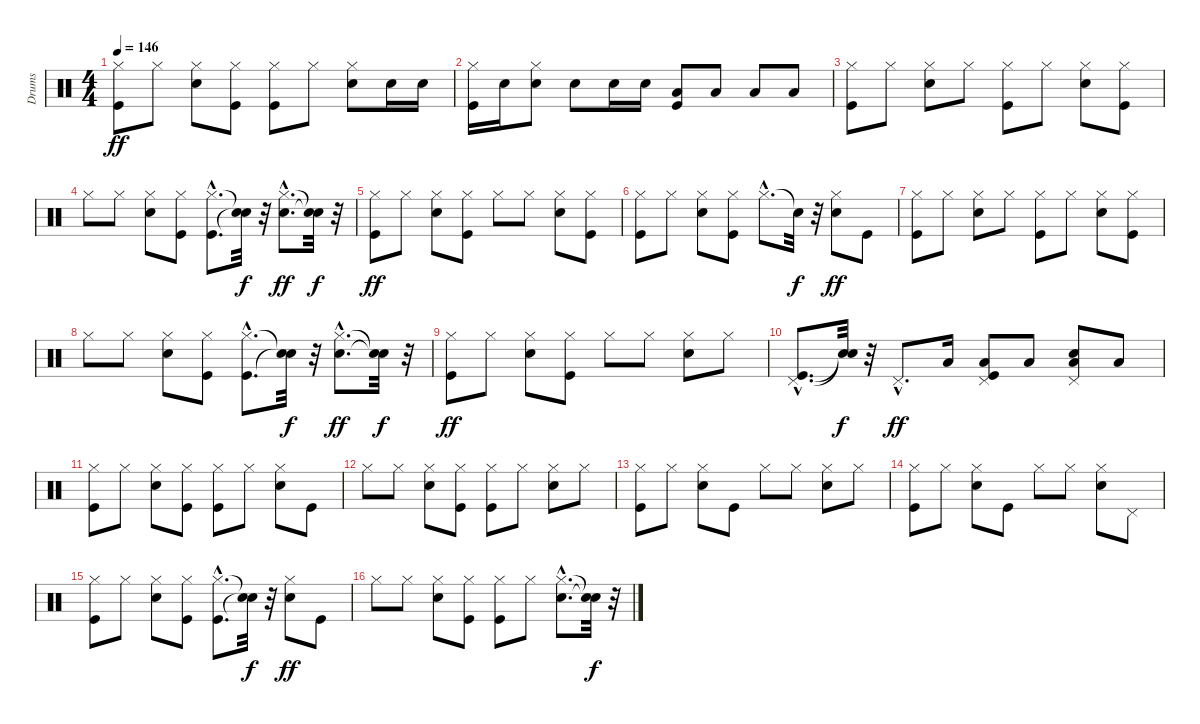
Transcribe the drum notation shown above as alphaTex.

\track ("Drums" "Drums") {instrument percussion}
\staff {score}
\articulation defaults
\ts (4 4)
\tempo 146
\clef neutral
\ks c
("Kick (hit)" "Hi-Hat (closed)").8{dy ff} "Hi-Hat (closed)".8 ("Snare (hit) 2" "Hi-Hat (closed)").8 ("Kick (hit)" "Hi-Hat (closed)").8 ("Kick (hit)" "Hi-Hat (closed)").8 "Hi-Hat (closed)".8 ("Snare (hit) 2" "Hi-Hat (closed)").8 "Snare (hit) 2".16 "Snare (hit) 2".16 |
("Kick (hit)" "Hi-Hat (closed)").16 "Snare (hit) 2".16 ("Snare (hit) 2" "Hi-Hat (closed)").8 "Snare (hit) 2".8 "Snare (hit) 2".16 "Snare (hit) 2".16 ("Kick (hit)" "Low Tom (hit)").8 "Low Tom (hit)".8 "Low Floor Tom (hit)".8 "Low Floor Tom (hit)".8 |
("Kick (hit)" "Hi-Hat (closed)").8 "Hi-Hat (closed)".8 ("Snare (hit) 2" "Hi-Hat (closed)").8 "Hi-Hat (closed)".8 ("Kick (hit)" "Hi-Hat (closed)").8 "Hi-Hat (closed)".8 ("Snare (hit) 2" "Hi-Hat (closed)").8 ("Kick (hit)" "Hi-Hat (closed)").8 |
"Hi-Hat (closed)".8 "Hi-Hat (closed)".8 ("Snare (hit) 2" "Hi-Hat (closed)").8 ("Kick (hit)" "Hi-Hat (closed)").8 ("Kick (hit)"{hac} "Hi-Hat (closed)"{hac}).8{d} ("Snare (hit)"{t} "Snare (hit)"{t}).32{dy f} r.32 ("Snare (hit) 2"{hac} "Hi-Hat (closed)"{hac}).8{d dy ff} ("Snare (hit)"{t} "Snare (hit)"{t}).32{dy f} r.32 |
("Kick (hit)" "Hi-Hat (closed)").8{dy ff} "Hi-Hat (closed)".8 ("Snare (hit) 2" "Hi-Hat (closed)").8 ("Kick (hit)" "Hi-Hat (closed)").8 "Hi-Hat (closed)".8 "Hi-Hat (closed)".8 ("Snare (hit) 2" "Hi-Hat (closed)").8 ("Kick (hit)" "Hi-Hat (closed)").8 |
("Kick (hit)" "Hi-Hat (closed)").8 "Hi-Hat (closed)".8 ("Snare (hit) 2" "Hi-Hat (closed)").8 ("Kick (hit)" "Hi-Hat (closed)").8 "Hi-Hat (closed)"{hac}.8{d} "Snare (hit)"{t}.32{dy f} r.32 ("Snare (hit) 2" "Hi-Hat (closed)").8{dy ff} "Kick (hit)".8 |
("Kick (hit)" "Hi-Hat (closed)").8 "Hi-Hat (closed)".8 ("Snare (hit) 2" "Hi-Hat (closed)").8 "Hi-Hat (closed)".8 ("Kick (hit)" "Hi-Hat (closed)").8 "Hi-Hat (closed)".8 ("Snare (hit) 2" "Hi-Hat (closed)").8 ("Kick (hit)" "Hi-Hat (closed)").8 |
"Hi-Hat (closed)".8 "Hi-Hat (closed)".8 ("Snare (hit) 2" "Hi-Hat (closed)").8 ("Kick (hit)" "Hi-Hat (closed)").8 ("Kick (hit)"{hac} "Hi-Hat (closed)"{hac}).8{d} ("Snare (hit)"{t} "Snare (hit)"{t}).32{dy f} r.32 ("Snare (hit) 2"{hac} "Hi-Hat (closed)"{hac}).8{d dy ff} ("Snare (hit)"{t} "Snare (hit)"{t}).32{dy f} r.32 |
("Kick (hit)" "Hi-Hat (closed)").8{dy ff} "Hi-Hat (closed)".8 ("Snare (hit) 2" "Hi-Hat (closed)").8 ("Kick (hit)" "Hi-Hat (closed)").8 "Hi-Hat (closed)".8 "Hi-Hat (closed)".8 ("Snare (hit) 2" "Hi-Hat (closed)").8 "Hi-Hat (closed)".8 |
("Kick (hit)"{hac} "Pedal Hi-Hat (hit)"{hac}).8{d} ("Snare (hit)"{t} "Snare (hit)"{t}).32{dy f} r.32 "Pedal Hi-Hat (hit)"{hac}.8{d dy ff} "Low Tom (hit)".16 ("Kick (hit)" "Pedal Hi-Hat (hit)" "Low Tom (hit)").8 "Low Floor Tom (hit)".8 ("Snare (hit) 2" "Low Floor Tom (hit)" "Pedal Hi-Hat (hit)").8 "Low Floor Tom (hit)".8 |
("Kick (hit)" "Hi-Hat (closed)").8 "Hi-Hat (closed)".8 ("Snare (hit) 2" "Hi-Hat (closed)").8 ("Kick (hit)" "Hi-Hat (closed)").8 ("Kick (hit)" "Hi-Hat (closed)").8 "Hi-Hat (closed)".8 ("Snare (hit) 2" "Hi-Hat (closed)").8 "Kick (hit)".8 |
"Hi-Hat (closed)".8 "Hi-Hat (closed)".8 ("Snare (hit) 2" "Hi-Hat (closed)").8 ("Kick (hit)" "Hi-Hat (closed)").8 ("Kick (hit)" "Hi-Hat (closed)").8 "Hi-Hat (closed)".8 ("Snare (hit) 2" "Hi-Hat (closed)").8 "Hi-Hat (closed)".8 |
("Kick (hit)" "Hi-Hat (closed)").8 "Hi-Hat (closed)".8 ("Snare (hit) 2" "Hi-Hat (closed)").8 "Kick (hit)".8 "Hi-Hat (closed)".8 "Hi-Hat (closed)".8 ("Snare (hit) 2" "Hi-Hat (closed)").8 "Hi-Hat (closed)".8 |
("Kick (hit)" "Hi-Hat (closed)").8 "Hi-Hat (closed)".8 ("Snare (hit) 2" "Hi-Hat (closed)").8 "Kick (hit)".8 "Hi-Hat (closed)".8 "Hi-Hat (closed)".8 ("Snare (hit) 2" "Hi-Hat (closed)").8 "Pedal Hi-Hat (hit)".8 |
("Kick (hit)" "Hi-Hat (closed)").8 "Hi-Hat (closed)".8 ("Snare (hit) 2" "Hi-Hat (closed)").8 ("Kick (hit)" "Hi-Hat (closed)").8 ("Kick (hit)"{hac} "Hi-Hat (closed)"{hac}).8{d} ("Snare (hit)"{t} "Snare (hit)"{t}).32{dy f} r.32 ("Snare (hit) 2" "Hi-Hat (closed)").8{dy ff} "Kick (hit)".8 |
"Hi-Hat (closed)".8 "Hi-Hat (closed)".8 ("Snare (hit) 2" "Hi-Hat (closed)").8 ("Kick (hit)" "Hi-Hat (closed)").8 ("Kick (hit)" "Hi-Hat (closed)").8 "Hi-Hat (closed)".8 ("Snare (hit) 2"{hac} "Hi-Hat (closed)"{hac}).8{d} ("Snare (hit)"{t} "Snare (hit)"{t}).32{dy f} r.32
